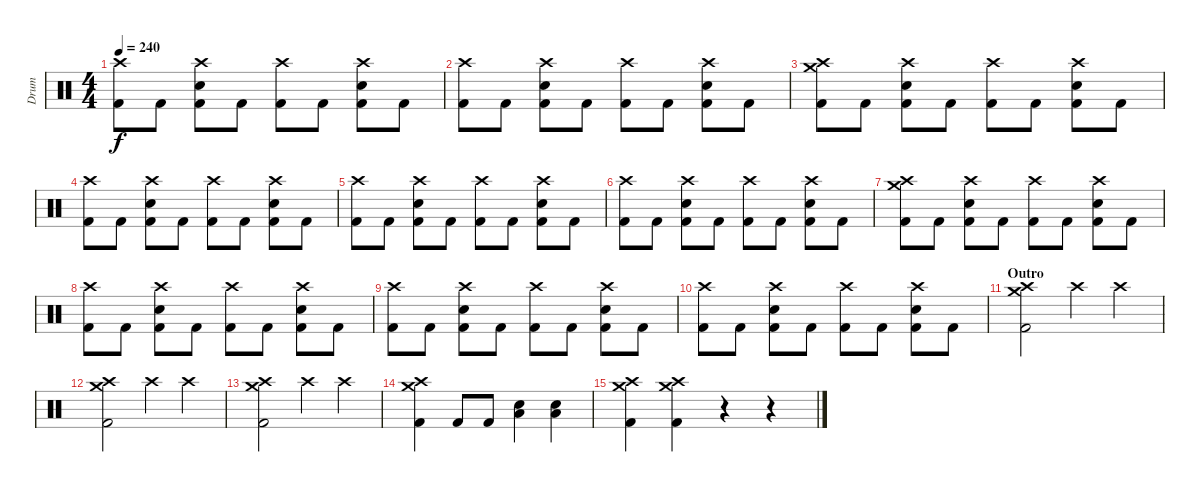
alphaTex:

\track ("Drum" "Drum") {instrument percussion}
\staff {score}
\articulation defaults
\ts (4 4)
\tempo 240
\clef neutral
\ks c
("Crash high (hit)" "Kick (hit) 2").8{dy f} "Kick (hit) 2".8 ("Crash high (hit)" "Kick (hit) 2" "Electric Snare (hit)").8 "Kick (hit) 2".8 ("Crash high (hit)" "Kick (hit) 2").8 "Kick (hit) 2".8 ("Crash high (hit)" "Kick (hit) 2" "Electric Snare (hit)").8 "Kick (hit) 2".8 |
("Crash high (hit)" "Kick (hit) 2").8 "Kick (hit) 2".8 ("Crash high (hit)" "Kick (hit) 2" "Electric Snare (hit)").8 "Kick (hit) 2".8 ("Crash high (hit)" "Kick (hit) 2").8 "Kick (hit) 2".8 ("Crash high (hit)" "Kick (hit) 2" "Electric Snare (hit)").8 "Kick (hit) 2".8 |
("Crash high (hit)" "Kick (hit) 2" "Crash medium (hit)").8 "Kick (hit) 2".8 ("Crash high (hit)" "Kick (hit) 2" "Electric Snare (hit)").8 "Kick (hit) 2".8 ("Crash high (hit)" "Kick (hit) 2").8 "Kick (hit) 2".8 ("Crash high (hit)" "Kick (hit) 2" "Electric Snare (hit)").8 "Kick (hit) 2".8 |
("Crash high (hit)" "Kick (hit) 2").8 "Kick (hit) 2".8 ("Crash high (hit)" "Kick (hit) 2" "Electric Snare (hit)").8 "Kick (hit) 2".8 ("Crash high (hit)" "Kick (hit) 2").8 "Kick (hit) 2".8 ("Crash high (hit)" "Kick (hit) 2" "Electric Snare (hit)").8 "Kick (hit) 2".8 |
("Crash high (hit)" "Kick (hit) 2").8 "Kick (hit) 2".8 ("Crash high (hit)" "Kick (hit) 2" "Electric Snare (hit)").8 "Kick (hit) 2".8 ("Crash high (hit)" "Kick (hit) 2").8 "Kick (hit) 2".8 ("Crash high (hit)" "Kick (hit) 2" "Electric Snare (hit)").8 "Kick (hit) 2".8 |
("Crash high (hit)" "Kick (hit) 2").8 "Kick (hit) 2".8 ("Crash high (hit)" "Kick (hit) 2" "Electric Snare (hit)").8 "Kick (hit) 2".8 ("Crash high (hit)" "Kick (hit) 2").8 "Kick (hit) 2".8 ("Crash high (hit)" "Kick (hit) 2" "Electric Snare (hit)").8 "Kick (hit) 2".8 |
("Crash high (hit)" "Kick (hit) 2" "Crash medium (hit)").8 "Kick (hit) 2".8 ("Crash high (hit)" "Kick (hit) 2" "Electric Snare (hit)").8 "Kick (hit) 2".8 ("Crash high (hit)" "Kick (hit) 2").8 "Kick (hit) 2".8 ("Crash high (hit)" "Kick (hit) 2" "Electric Snare (hit)").8 "Kick (hit) 2".8 |
("Crash high (hit)" "Kick (hit) 2").8 "Kick (hit) 2".8 ("Crash high (hit)" "Kick (hit) 2" "Electric Snare (hit)").8 "Kick (hit) 2".8 ("Crash high (hit)" "Kick (hit) 2").8 "Kick (hit) 2".8 ("Crash high (hit)" "Kick (hit) 2" "Electric Snare (hit)").8 "Kick (hit) 2".8 |
("Crash high (hit)" "Kick (hit) 2").8 "Kick (hit) 2".8 ("Crash high (hit)" "Kick (hit) 2" "Electric Snare (hit)").8 "Kick (hit) 2".8 ("Crash high (hit)" "Kick (hit) 2").8 "Kick (hit) 2".8 ("Crash high (hit)" "Kick (hit) 2" "Electric Snare (hit)").8 "Kick (hit) 2".8 |
("Crash high (hit)" "Kick (hit) 2").8 "Kick (hit) 2".8 ("Crash high (hit)" "Kick (hit) 2" "Electric Snare (hit)").8 "Kick (hit) 2".8 ("Crash high (hit)" "Kick (hit) 2").8 "Kick (hit) 2".8 ("Crash high (hit)" "Kick (hit) 2" "Electric Snare (hit)").8 "Kick (hit) 2".8 |
\section ("" "Outro")
("Crash high (hit)" "Kick (hit) 2" "Crash medium (hit)").2 "Crash high (hit)".4 "Crash high (hit)".4 |
("Crash high (hit)" "Kick (hit) 2" "Crash medium (hit)").2 "Crash high (hit)".4 "Crash high (hit)".4 |
("Crash high (hit)" "Kick (hit) 2" "Crash medium (hit)").2 "Crash high (hit)".4 "Crash high (hit)".4 |
("Crash high (hit)" "Kick (hit) 2" "Crash medium (hit)").4 "Kick (hit) 2".8 "Kick (hit) 2".8 ("Low Floor Tom (hit)" "Electric Snare (hit)").4 ("Low Floor Tom (hit)" "Electric Snare (hit)").4 |
("Crash high (hit)" "Kick (hit) 2" "Crash medium (hit)").4 ("Crash high (hit)" "Kick (hit) 2" "Crash medium (hit)").4 r.4 r.4
